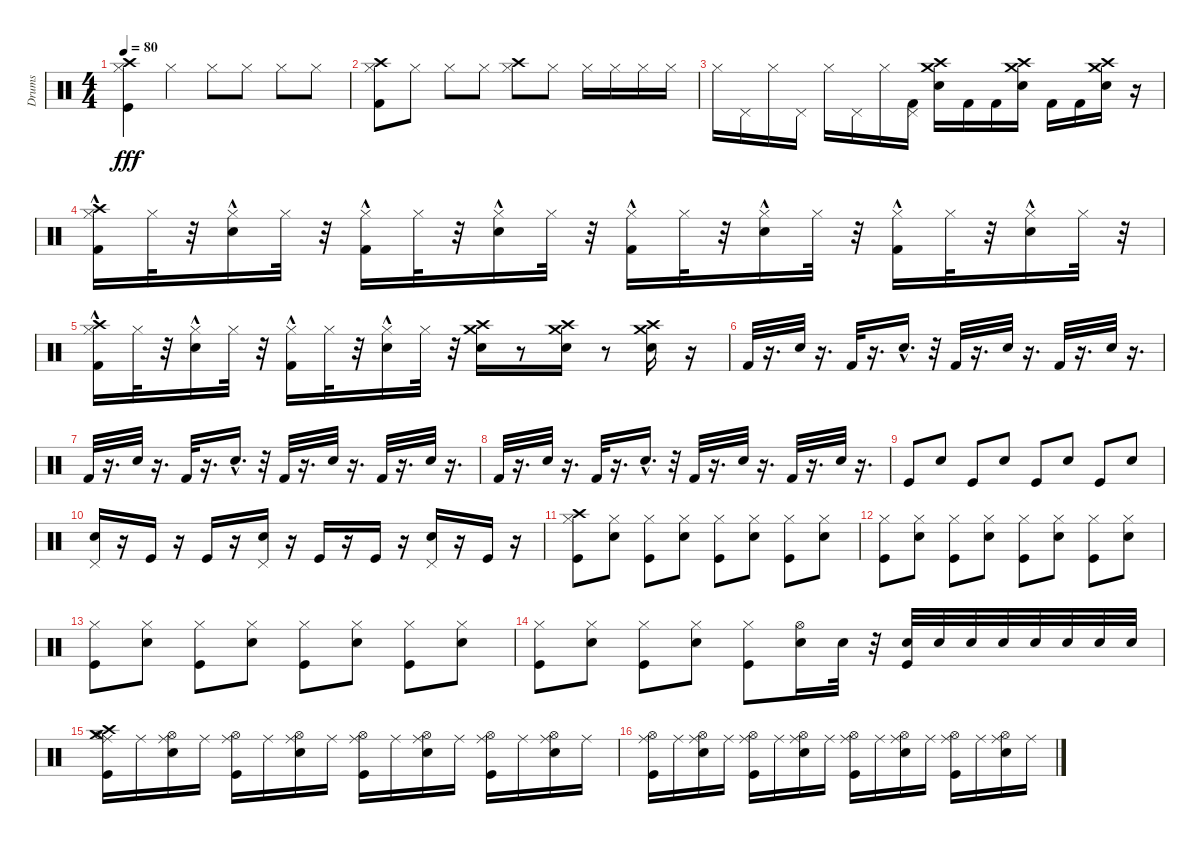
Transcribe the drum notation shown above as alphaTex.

\track ("Drums" "Drums") {instrument percussion}
\staff {score}
\articulation defaults
\ts (4 4)
\tempo 80
\clef neutral
\ks c
("Crash high (hit)" "Hi-Hat (closed)" "Kick (hit)").4{dy fff} "Hi-Hat (closed)".4 "Hi-Hat (closed)".8 "Hi-Hat (closed)".8 "Hi-Hat (closed)".8 "Hi-Hat (closed)".8 |
("Hi-Hat (closed)" "Kick (hit) 2" "Crash high (hit)").8 "Hi-Hat (closed)".8 "Hi-Hat (closed)".8 "Hi-Hat (closed)".8 ("Hi-Hat (closed)" "Crash high (hit)").8 "Hi-Hat (closed)".8 "Hi-Hat (closed)".16 "Hi-Hat (closed)".16 "Hi-Hat (closed)".16 "Hi-Hat (closed)".16 |
"Hi-Hat (closed)".16 "Pedal Hi-Hat (hit)".16 "Hi-Hat (closed)".16 "Pedal Hi-Hat (hit)".16 "Hi-Hat (closed)".16 "Pedal Hi-Hat (hit)".16 "Hi-Hat (closed)".16 ("Kick (hit) 2" "Pedal Hi-Hat (hit)").16 ("Crash medium (hit)" "Snare (hit) 2" "Crash high (hit)").16 "Kick (hit) 2".16 "Kick (hit) 2".16 ("Snare (hit) 2" "Crash high (hit)" "Crash medium (hit)").16 "Kick (hit) 2".16 "Kick (hit) 2".16 ("Crash medium (hit)" "Snare (hit) 2" "Crash high (hit)").16 r.16 |
("Kick (hit) 2"{hac} "Hi-Hat (closed)" "Crash high (hit)").16 "Hi-Hat (closed)".32 r.32 ("Hi-Hat (closed)" "Snare (hit) 2"{hac}).16 "Hi-Hat (closed)".32 r.32 ("Hi-Hat (closed)" "Kick (hit) 2"{hac}).16 "Hi-Hat (closed)".32 r.32 ("Snare (hit) 2"{hac} "Hi-Hat (closed)").16 "Hi-Hat (closed)".32 r.32 ("Hi-Hat (closed)" "Kick (hit) 2"{hac}).16 "Hi-Hat (closed)".32 r.32 ("Snare (hit) 2"{hac} "Hi-Hat (closed)").16 "Hi-Hat (closed)".32 r.32 ("Kick (hit) 2"{hac} "Hi-Hat (closed)").16 "Hi-Hat (closed)".32 r.32 ("Snare (hit) 2"{hac} "Hi-Hat (closed)").16 "Hi-Hat (closed)".32 r.32 |
("Hi-Hat (closed)" "Crash high (hit)" "Kick (hit) 2"{hac}).16 "Hi-Hat (closed)".32 r.32 ("Snare (hit) 2"{hac} "Hi-Hat (closed)").16 "Hi-Hat (closed)".32 r.32 ("Kick (hit) 2"{hac} "Hi-Hat (closed)").16 "Hi-Hat (closed)".32 r.32 ("Snare (hit) 2"{hac} "Hi-Hat (closed)").16 "Hi-Hat (closed)".32 r.32 ("Crash high (hit)" "Snare (hit) 2" "Crash medium (hit)").16 r.8 ("Crash medium (hit)" "Snare (hit) 2" "Crash high (hit)").16 r.8 ("Snare (hit) 2" "Crash high (hit)" "Crash medium (hit)").16 r.16 |
"Kick (hit) 2".32 r.16{d} "Snare (hit) 2".32 r.16{d} "Kick (hit) 2".32 r.16{d} "Snare (hit) 2"{hac}.16{d} r.32 "Kick (hit) 2".32 r.16{d} "Snare (hit) 2".32 r.16{d} "Kick (hit) 2".32 r.16{d} "Snare (hit) 2".32 r.16{d} |
"Kick (hit) 2".32 r.16{d} "Snare (hit) 2".32 r.16{d} "Kick (hit) 2".32 r.16{d} "Snare (hit) 2"{hac}.16{d} r.32 "Kick (hit) 2".32 r.16{d} "Snare (hit) 2".32 r.16{d} "Kick (hit) 2".32 r.16{d} "Snare (hit) 2".32 r.16{d} |
"Kick (hit) 2".32 r.16{d} "Snare (hit) 2".32 r.16{d} "Kick (hit) 2".32 r.16{d} "Snare (hit) 2"{hac}.16{d} r.32 "Kick (hit) 2".32 r.16{d} "Snare (hit) 2".32 r.16{d} "Kick (hit) 2".32 r.16{d} "Snare (hit) 2".32 r.16{d} |
"Kick (hit)".8 "Snare (hit) 2".8 "Kick (hit)".8 "Snare (hit) 2".8 "Kick (hit)".8 "Snare (hit) 2".8 "Kick (hit)".8 "Snare (hit) 2".8 |
("Pedal Hi-Hat (hit)" "Snare (hit) 2").16 r.16 "Kick (hit)".16 r.16 "Kick (hit)".16 r.16 ("Pedal Hi-Hat (hit)" "Snare (hit) 2").16 r.16 "Kick (hit)".16 r.16 "Kick (hit)".16 r.16 ("Pedal Hi-Hat (hit)" "Snare (hit) 2").16 r.16 "Kick (hit)".16 r.16 |
("Hi-Hat (closed)" "Kick (hit)" "Crash high (hit)").8 ("Hi-Hat (closed)" "Snare (hit) 2").8 ("Hi-Hat (closed)" "Kick (hit)").8 ("Hi-Hat (closed)" "Snare (hit) 2").8 ("Hi-Hat (closed)" "Kick (hit)").8 ("Hi-Hat (closed)" "Snare (hit) 2").8 ("Hi-Hat (closed)" "Kick (hit)").8 ("Hi-Hat (closed)" "Snare (hit) 2").8 |
("Kick (hit)" "Hi-Hat (closed)").8 ("Snare (hit) 2" "Hi-Hat (closed)").8 ("Kick (hit)" "Hi-Hat (closed)").8 ("Snare (hit) 2" "Hi-Hat (closed)").8 ("Kick (hit)" "Hi-Hat (closed)").8 ("Snare (hit) 2" "Hi-Hat (closed)").8 ("Kick (hit)" "Hi-Hat (closed)").8 ("Snare (hit) 2" "Hi-Hat (closed)").8 |
("Hi-Hat (closed)" "Kick (hit)").8 ("Hi-Hat (closed)" "Snare (hit) 2").8 ("Hi-Hat (closed)" "Kick (hit)").8 ("Hi-Hat (closed)" "Snare (hit) 2").8 ("Hi-Hat (closed)" "Kick (hit)").8 ("Hi-Hat (closed)" "Snare (hit) 2").8 ("Hi-Hat (closed)" "Kick (hit)").8 ("Hi-Hat (closed)" "Snare (hit) 2").8 |
("Hi-Hat (closed)" "Kick (hit)").8 ("Hi-Hat (closed)" "Snare (hit) 2").8 ("Hi-Hat (closed)" "Kick (hit)").8 ("Snare (hit) 2" "Hi-Hat (closed)").8 ("Kick (hit)" "Hi-Hat (closed)").8 ("Snare (hit) 2" "Hi-Hat (open)").16 "Snare (hit) 2".32 r.32 ("Snare (hit) 2" "Kick (hit)").32 "Snare (hit) 2".32 "Snare (hit) 2".32 "Snare (hit) 2".32 "Snare (hit) 2".32 "Snare (hit) 2".32 "Snare (hit) 2".32 "Snare (hit) 2".32 |
("Ride (middle)" "Hi-Hat (open)" "Kick (hit)" "Crash medium (hit)" "Crash high (hit)").16 "Ride (middle)".16 ("Hi-Hat (open)" "Ride (middle)" "Snare (hit) 2").16 "Ride (middle)".16 ("Ride (middle)" "Hi-Hat (open)" "Kick (hit)").16 "Ride (middle)".16 ("Hi-Hat (open)" "Ride (middle)" "Snare (hit) 2").16 "Ride (middle)".16 ("Ride (middle)" "Hi-Hat (open)" "Kick (hit)").16 "Ride (middle)".16 ("Hi-Hat (open)" "Ride (middle)" "Snare (hit) 2").16 "Ride (middle)".16 ("Ride (middle)" "Hi-Hat (open)" "Kick (hit)").16 "Ride (middle)".16 ("Hi-Hat (open)" "Ride (middle)" "Snare (hit) 2").16 "Ride (middle)".16 |
("Hi-Hat (open)" "Kick (hit)" "Ride (middle)").16 "Ride (middle)".16 ("Ride (middle)" "Snare (hit) 2" "Hi-Hat (open)").16 "Ride (middle)".16 ("Ride (middle)" "Hi-Hat (open)" "Kick (hit)").16 "Ride (middle)".16 ("Snare (hit) 2" "Ride (middle)" "Hi-Hat (open)").16 "Ride (middle)".16 ("Hi-Hat (open)" "Ride (middle)" "Kick (hit)").16 "Ride (middle)".16 ("Ride (middle)" "Hi-Hat (open)" "Snare (hit) 2").16 "Ride (middle)".16 ("Ride (middle)" "Hi-Hat (open)" "Kick (hit)").16 "Ride (middle)".16 ("Hi-Hat (open)" "Ride (middle)" "Snare (hit) 2").16 "Ride (middle)".16
